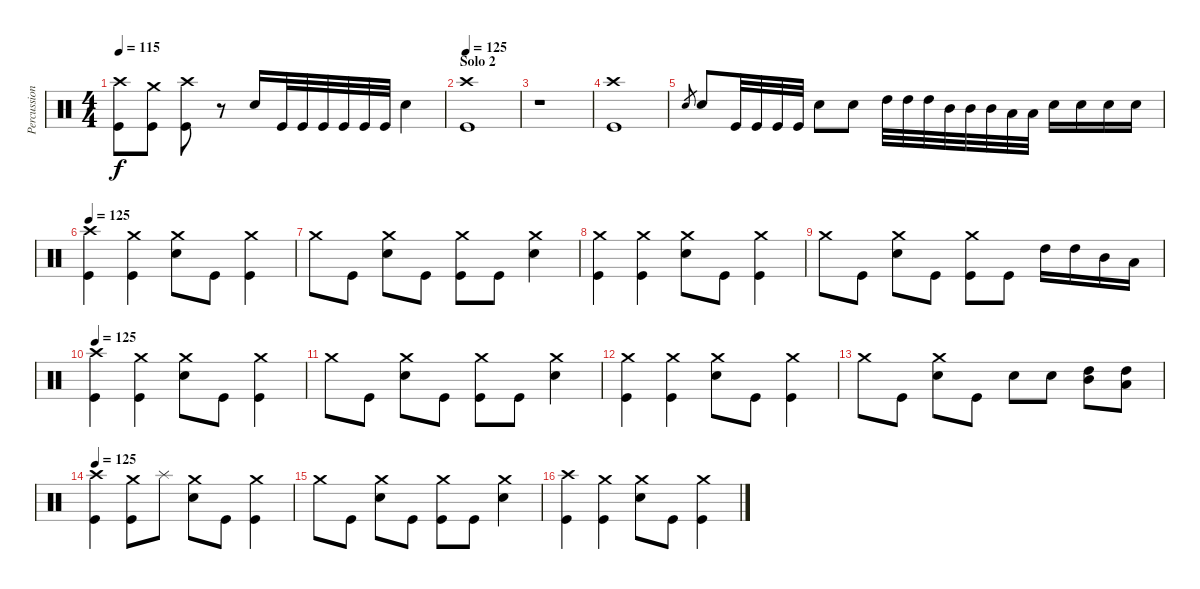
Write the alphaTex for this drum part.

\track ("Percussion" "Percussion") {instrument percussion}
\staff {score}
\articulation defaults
\ts (4 4)
\tempo 115
\clef neutral
\ks c
("Crash high (hit)" "Kick (hit)").8{dy f} ("Crash medium (hit)" "Kick (hit)").8 ("Crash high (hit)" "Kick (hit)").8 r.8 "Electric Snare (hit)".16 "Kick (hit)".32 "Kick (hit)".32 "Kick (hit)".32 "Kick (hit)".32 "Kick (hit)".32 "Kick (hit)".32 "Electric Snare (hit)".4 |
\section ("" "Solo 2")
\tempo 125
("Crash high (hit)" "Kick (hit)").1 |
r.1 |
("Crash high (hit)" "Kick (hit)").1 |
"Electric Snare (hit)".8{gr} "Electric Snare (hit)".8 "Kick (hit)".32 "Kick (hit)".32 "Kick (hit)".32 "Kick (hit)".32 "Electric Snare (hit)".8 "Electric Snare (hit)".8 "High Tom (hit)".32 "High Tom (hit)".32 "High Tom (hit)".32 "Mid Tom (hit)".32 "Mid Tom (hit)".32 "Mid Tom (hit)".32 "Low Tom (hit)".32 "Low Tom (hit)".32 "Electric Snare (hit)".16 "Electric Snare (hit)".16 "Electric Snare (hit)".16 "Electric Snare (hit)".16 |
\tempo 125
("Crash high (hit)" "Kick (hit)").4 ("Crash medium (hit)" "Kick (hit)").4 ("Crash medium (hit)" "Electric Snare (hit)").8 "Kick (hit)".8 ("Crash medium (hit)" "Kick (hit)").4 |
"Crash medium (hit)".8 "Kick (hit)".8 ("Crash medium (hit)" "Electric Snare (hit)").8 "Kick (hit)".8 ("Crash medium (hit)" "Kick (hit)").8 "Kick (hit)".8 ("Crash medium (hit)" "Electric Snare (hit)").4 |
("Crash medium (hit)" "Kick (hit)").4 ("Crash medium (hit)" "Kick (hit)").4 ("Crash medium (hit)" "Electric Snare (hit)").8 "Kick (hit)".8 ("Crash medium (hit)" "Kick (hit)").4 |
"Crash medium (hit)".8 "Kick (hit)".8 ("Crash medium (hit)" "Electric Snare (hit)").8 "Kick (hit)".8 ("Crash medium (hit)" "Kick (hit)").8 "Kick (hit)".8 "High Tom (hit)".16 "High Tom (hit)".16 "Mid Tom (hit)".16 "Low Tom (hit)".16 |
\tempo 125
("Crash high (hit)" "Kick (hit)").4 ("Crash medium (hit)" "Kick (hit)").4 ("Crash medium (hit)" "Electric Snare (hit)").8 "Kick (hit)".8 ("Crash medium (hit)" "Kick (hit)").4 |
"Crash medium (hit)".8 "Kick (hit)".8 ("Crash medium (hit)" "Electric Snare (hit)").8 "Kick (hit)".8 ("Crash medium (hit)" "Kick (hit)").8 "Kick (hit)".8 ("Crash medium (hit)" "Electric Snare (hit)").4 |
("Crash medium (hit)" "Kick (hit)").4 ("Crash medium (hit)" "Kick (hit)").4 ("Crash medium (hit)" "Electric Snare (hit)").8 "Kick (hit)".8 ("Crash medium (hit)" "Kick (hit)").4 |
"Crash medium (hit)".8 "Kick (hit)".8 ("Crash medium (hit)" "Electric Snare (hit)").8 "Kick (hit)".8 "Electric Snare (hit)".8 "Electric Snare (hit)".8 ("Mid Tom (hit)" "High Tom (hit)").8 ("Low Tom (hit)" "High Tom (hit)").8 |
\tempo 125
("Crash high (hit)" "Kick (hit)").4 ("Crash medium (hit)" "Kick (hit)").8 "Splash (hit)".8 ("Crash medium (hit)" "Electric Snare (hit)").8 "Kick (hit)".8 ("Crash medium (hit)" "Kick (hit)").4 |
"Crash medium (hit)".8 "Kick (hit)".8 ("Crash medium (hit)" "Electric Snare (hit)").8 "Kick (hit)".8 ("Crash medium (hit)" "Kick (hit)").8 "Kick (hit)".8 ("Crash medium (hit)" "Electric Snare (hit)").4 |
("Crash high (hit)" "Kick (hit)").4 ("Crash medium (hit)" "Kick (hit)").4 ("Crash medium (hit)" "Electric Snare (hit)").8 "Kick (hit)".8 ("Crash medium (hit)" "Kick (hit)").4
